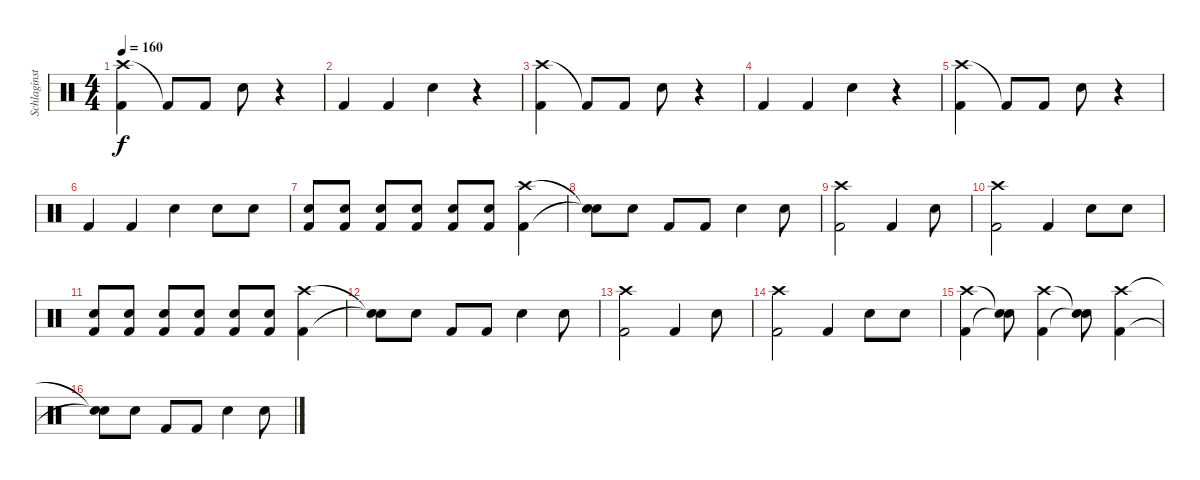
\track ("Schlaginstrumente - Auswahl" "Schlaginst") {instrument percussion}
\staff {score}
\articulation defaults
\ts (4 4)
\tempo 160
\clef neutral
\ks c
("Crash high (hit)" "Kick (hit) 2").4{dy f} "Kick (hit) 2"{t}.8 "Kick (hit) 2".8 "Electric Snare (hit)".8 r.4 |
"Kick (hit) 2".4 "Kick (hit) 2".4 "Electric Snare (hit)".4 r.4 |
("Crash high (hit)" "Kick (hit) 2").4 "Kick (hit) 2"{t}.8 "Kick (hit) 2".8 "Electric Snare (hit)".8 r.4 |
"Kick (hit) 2".4 "Kick (hit) 2".4 "Electric Snare (hit)".4 r.4 |
("Crash high (hit)" "Kick (hit) 2").4 "Kick (hit) 2"{t}.8 "Kick (hit) 2".8 "Electric Snare (hit)".8 r.4 |
"Kick (hit) 2".4 "Kick (hit) 2".4 "Electric Snare (hit)".4 "Electric Snare (hit)".8 "Electric Snare (hit)".8 |
("Electric Snare (hit)" "Kick (hit) 2").8 ("Electric Snare (hit)" "Kick (hit) 2").8 ("Electric Snare (hit)" "Kick (hit) 2").8 ("Electric Snare (hit)" "Kick (hit) 2").8 ("Electric Snare (hit)" "Kick (hit) 2").8 ("Electric Snare (hit)" "Kick (hit) 2").8 ("Crash high (hit)" "Kick (hit) 2").4 |
("Snare (hit)"{t} "Snare (hit)"{t}).8 "Electric Snare (hit)".8 "Kick (hit) 2".8 "Kick (hit) 2".8 "Electric Snare (hit)".4 "Electric Snare (hit)".8 |
("Crash high (hit)" "Kick (hit) 2").2 "Kick (hit) 2".4 "Electric Snare (hit)".8 |
("Crash high (hit)" "Kick (hit) 2").2 "Kick (hit) 2".4 "Electric Snare (hit)".8 "Electric Snare (hit)".8 |
("Electric Snare (hit)" "Kick (hit) 2").8 ("Electric Snare (hit)" "Kick (hit) 2").8 ("Electric Snare (hit)" "Kick (hit) 2").8 ("Electric Snare (hit)" "Kick (hit) 2").8 ("Electric Snare (hit)" "Kick (hit) 2").8 ("Electric Snare (hit)" "Kick (hit) 2").8 ("Crash high (hit)" "Kick (hit) 2").4 |
("Snare (hit)"{t} "Snare (hit)"{t}).8 "Electric Snare (hit)".8 "Kick (hit) 2".8 "Kick (hit) 2".8 "Electric Snare (hit)".4 "Electric Snare (hit)".8 |
("Crash high (hit)" "Kick (hit) 2").2 "Kick (hit) 2".4 "Electric Snare (hit)".8 |
("Crash high (hit)" "Kick (hit) 2").2 "Kick (hit) 2".4 "Electric Snare (hit)".8 "Electric Snare (hit)".8 |
("Crash high (hit)" "Kick (hit) 2").4 ("Snare (hit)"{t} "Snare (hit)"{t}).8 ("Crash high (hit)" "Kick (hit) 2").4 ("Snare (hit)"{t} "Snare (hit)"{t}).8 ("Crash high (hit)" "Kick (hit) 2").4 |
("Snare (hit)"{t} "Snare (hit)"{t}).8 "Electric Snare (hit)".8 "Kick (hit) 2".8 "Kick (hit) 2".8 "Electric Snare (hit)".4 "Electric Snare (hit)".8
